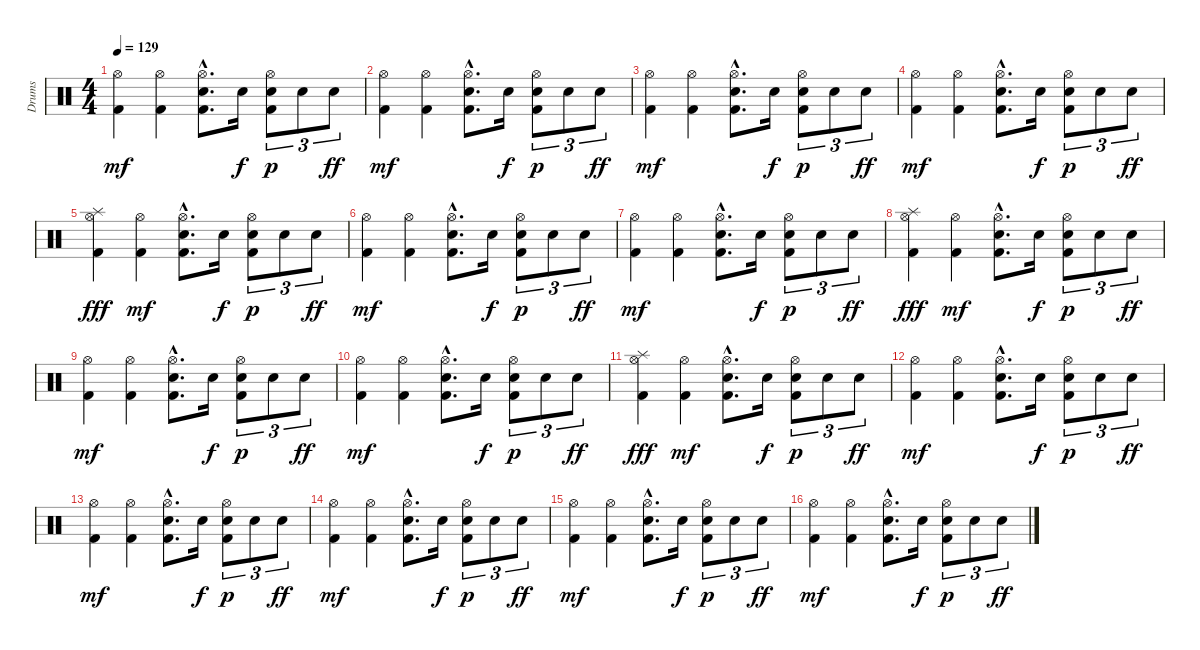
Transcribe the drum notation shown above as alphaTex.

\track ("Drums" "Drums") {instrument percussion}
\staff {score}
\articulation defaults
\ts (4 4)
\tempo 129
\clef neutral
\ks c
("Hi-Hat (open)" "Kick (hit) 2").4{dy mf} ("Hi-Hat (open)" "Kick (hit) 2").4 ("Hi-Hat (open)"{hac} "Electric Snare (hit)"{hac} "Kick (hit) 2"{hac}).8{d} "Electric Snare (hit)".16{dy f} ("Hi-Hat (open)" "Electric Snare (hit)" "Kick (hit) 2").8{tu (3 2) dy p} "Electric Snare (hit)".8{tu (3 2)} "Electric Snare (hit)".8{tu (3 2) dy ff} |
("Hi-Hat (open)" "Kick (hit) 2").4{dy mf} ("Hi-Hat (open)" "Kick (hit) 2").4 ("Hi-Hat (open)"{hac} "Electric Snare (hit)"{hac} "Kick (hit) 2"{hac}).8{d} "Electric Snare (hit)".16{dy f} ("Hi-Hat (open)" "Electric Snare (hit)" "Kick (hit) 2").8{tu (3 2) dy p} "Electric Snare (hit)".8{tu (3 2)} "Electric Snare (hit)".8{tu (3 2) dy ff} |
("Hi-Hat (open)" "Kick (hit) 2").4{dy mf} ("Hi-Hat (open)" "Kick (hit) 2").4 ("Hi-Hat (open)"{hac} "Electric Snare (hit)"{hac} "Kick (hit) 2"{hac}).8{d} "Electric Snare (hit)".16{dy f} ("Hi-Hat (open)" "Electric Snare (hit)" "Kick (hit) 2").8{tu (3 2) dy p} "Electric Snare (hit)".8{tu (3 2)} "Electric Snare (hit)".8{tu (3 2) dy ff} |
("Hi-Hat (open)" "Kick (hit) 2").4{dy mf} ("Hi-Hat (open)" "Kick (hit) 2").4 ("Hi-Hat (open)"{hac} "Electric Snare (hit)"{hac} "Kick (hit) 2"{hac}).8{d} "Electric Snare (hit)".16{dy f} ("Hi-Hat (open)" "Electric Snare (hit)" "Kick (hit) 2").8{tu (3 2) dy p} "Electric Snare (hit)".8{tu (3 2)} "Electric Snare (hit)".8{tu (3 2) dy ff} |
("Hi-Hat (open)" "Splash (hit)" "Kick (hit) 2").4{dy fff} ("Hi-Hat (open)" "Kick (hit) 2").4{dy mf} ("Hi-Hat (open)"{hac} "Electric Snare (hit)"{hac} "Kick (hit) 2"{hac}).8{d} "Electric Snare (hit)".16{dy f} ("Hi-Hat (open)" "Electric Snare (hit)" "Kick (hit) 2").8{tu (3 2) dy p} "Electric Snare (hit)".8{tu (3 2)} "Electric Snare (hit)".8{tu (3 2) dy ff} |
("Hi-Hat (open)" "Kick (hit) 2").4{dy mf} ("Hi-Hat (open)" "Kick (hit) 2").4 ("Hi-Hat (open)"{hac} "Electric Snare (hit)"{hac} "Kick (hit) 2"{hac}).8{d} "Electric Snare (hit)".16{dy f} ("Hi-Hat (open)" "Electric Snare (hit)" "Kick (hit) 2").8{tu (3 2) dy p} "Electric Snare (hit)".8{tu (3 2)} "Electric Snare (hit)".8{tu (3 2) dy ff} |
("Hi-Hat (open)" "Kick (hit) 2").4{dy mf} ("Hi-Hat (open)" "Kick (hit) 2").4 ("Hi-Hat (open)"{hac} "Electric Snare (hit)"{hac} "Kick (hit) 2"{hac}).8{d} "Electric Snare (hit)".16{dy f} ("Hi-Hat (open)" "Electric Snare (hit)" "Kick (hit) 2").8{tu (3 2) dy p} "Electric Snare (hit)".8{tu (3 2)} "Electric Snare (hit)".8{tu (3 2) dy ff} |
("Hi-Hat (open)" "Splash (hit)" "Kick (hit) 2").4{dy fff} ("Hi-Hat (open)" "Kick (hit) 2").4{dy mf} ("Hi-Hat (open)"{hac} "Electric Snare (hit)"{hac} "Kick (hit) 2"{hac}).8{d} "Electric Snare (hit)".16{dy f} ("Hi-Hat (open)" "Electric Snare (hit)" "Kick (hit) 2").8{tu (3 2) dy p} "Electric Snare (hit)".8{tu (3 2)} "Electric Snare (hit)".8{tu (3 2) dy ff} |
("Hi-Hat (open)" "Kick (hit) 2").4{dy mf} ("Hi-Hat (open)" "Kick (hit) 2").4 ("Hi-Hat (open)"{hac} "Electric Snare (hit)"{hac} "Kick (hit) 2"{hac}).8{d} "Electric Snare (hit)".16{dy f} ("Hi-Hat (open)" "Electric Snare (hit)" "Kick (hit) 2").8{tu (3 2) dy p} "Electric Snare (hit)".8{tu (3 2)} "Electric Snare (hit)".8{tu (3 2) dy ff} |
("Hi-Hat (open)" "Kick (hit) 2").4{dy mf} ("Hi-Hat (open)" "Kick (hit) 2").4 ("Hi-Hat (open)"{hac} "Electric Snare (hit)"{hac} "Kick (hit) 2"{hac}).8{d} "Electric Snare (hit)".16{dy f} ("Hi-Hat (open)" "Electric Snare (hit)" "Kick (hit) 2").8{tu (3 2) dy p} "Electric Snare (hit)".8{tu (3 2)} "Electric Snare (hit)".8{tu (3 2) dy ff} |
("Hi-Hat (open)" "Splash (hit)" "Kick (hit) 2").4{dy fff} ("Hi-Hat (open)" "Kick (hit) 2").4{dy mf} ("Hi-Hat (open)"{hac} "Electric Snare (hit)"{hac} "Kick (hit) 2"{hac}).8{d} "Electric Snare (hit)".16{dy f} ("Hi-Hat (open)" "Electric Snare (hit)" "Kick (hit) 2").8{tu (3 2) dy p} "Electric Snare (hit)".8{tu (3 2)} "Electric Snare (hit)".8{tu (3 2) dy ff} |
("Hi-Hat (open)" "Kick (hit) 2").4{dy mf} ("Hi-Hat (open)" "Kick (hit) 2").4 ("Hi-Hat (open)"{hac} "Electric Snare (hit)"{hac} "Kick (hit) 2"{hac}).8{d} "Electric Snare (hit)".16{dy f} ("Hi-Hat (open)" "Electric Snare (hit)" "Kick (hit) 2").8{tu (3 2) dy p} "Electric Snare (hit)".8{tu (3 2)} "Electric Snare (hit)".8{tu (3 2) dy ff} |
("Hi-Hat (open)" "Kick (hit) 2").4{dy mf} ("Hi-Hat (open)" "Kick (hit) 2").4 ("Hi-Hat (open)"{hac} "Electric Snare (hit)"{hac} "Kick (hit) 2"{hac}).8{d} "Electric Snare (hit)".16{dy f} ("Hi-Hat (open)" "Electric Snare (hit)" "Kick (hit) 2").8{tu (3 2) dy p} "Electric Snare (hit)".8{tu (3 2)} "Electric Snare (hit)".8{tu (3 2) dy ff} |
("Hi-Hat (open)" "Kick (hit) 2").4{dy mf} ("Hi-Hat (open)" "Kick (hit) 2").4 ("Hi-Hat (open)"{hac} "Electric Snare (hit)"{hac} "Kick (hit) 2"{hac}).8{d} "Electric Snare (hit)".16{dy f} ("Hi-Hat (open)" "Electric Snare (hit)" "Kick (hit) 2").8{tu (3 2) dy p} "Electric Snare (hit)".8{tu (3 2)} "Electric Snare (hit)".8{tu (3 2) dy ff} |
("Hi-Hat (open)" "Kick (hit) 2").4{dy mf} ("Hi-Hat (open)" "Kick (hit) 2").4 ("Hi-Hat (open)"{hac} "Electric Snare (hit)"{hac} "Kick (hit) 2"{hac}).8{d} "Electric Snare (hit)".16{dy f} ("Hi-Hat (open)" "Electric Snare (hit)" "Kick (hit) 2").8{tu (3 2) dy p} "Electric Snare (hit)".8{tu (3 2)} "Electric Snare (hit)".8{tu (3 2) dy ff} |
("Hi-Hat (open)" "Kick (hit) 2").4{dy mf} ("Hi-Hat (open)" "Kick (hit) 2").4 ("Hi-Hat (open)"{hac} "Electric Snare (hit)"{hac} "Kick (hit) 2"{hac}).8{d} "Electric Snare (hit)".16{dy f} ("Hi-Hat (open)" "Electric Snare (hit)" "Kick (hit) 2").8{tu (3 2) dy p} "Electric Snare (hit)".8{tu (3 2)} "Electric Snare (hit)".8{tu (3 2) dy ff}
